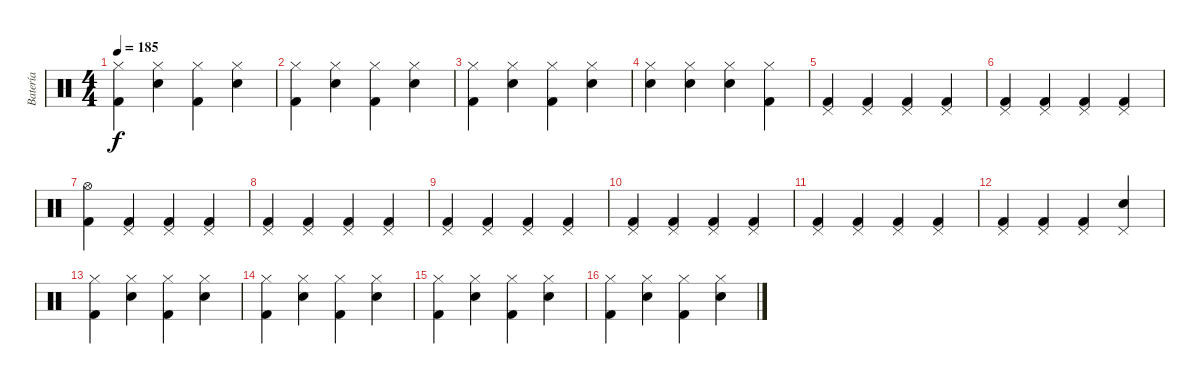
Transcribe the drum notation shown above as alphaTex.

\track ("Batería" "Batería") {instrument percussion}
\staff {score}
\articulation defaults
\ts (4 4)
\tempo 185
\clef neutral
\ks c
("Hi-Hat (closed)" "Kick (hit) 2").4{dy f} ("Hi-Hat (closed)" "Snare (hit) 2").4 ("Hi-Hat (closed)" "Kick (hit) 2").4 ("Hi-Hat (closed)" "Snare (hit) 2").4 |
("Hi-Hat (closed)" "Kick (hit) 2").4 ("Hi-Hat (closed)" "Snare (hit) 2").4 ("Hi-Hat (closed)" "Kick (hit) 2").4 ("Hi-Hat (closed)" "Snare (hit) 2").4 |
("Hi-Hat (closed)" "Kick (hit) 2").4 ("Hi-Hat (closed)" "Snare (hit) 2").4 ("Hi-Hat (closed)" "Kick (hit) 2").4 ("Hi-Hat (closed)" "Snare (hit) 2").4 |
("Hi-Hat (closed)" "Snare (hit) 2").4 ("Hi-Hat (closed)" "Snare (hit) 2").4 ("Hi-Hat (closed)" "Snare (hit) 2").4 ("Hi-Hat (closed)" "Kick (hit) 2").4 |
("Pedal Hi-Hat (hit)" "Kick (hit) 2").4 ("Pedal Hi-Hat (hit)" "Kick (hit) 2").4 ("Pedal Hi-Hat (hit)" "Kick (hit) 2").4 ("Pedal Hi-Hat (hit)" "Kick (hit) 2").4 |
("Pedal Hi-Hat (hit)" "Kick (hit) 2").4 ("Pedal Hi-Hat (hit)" "Kick (hit) 2").4 ("Pedal Hi-Hat (hit)" "Kick (hit) 2").4 ("Pedal Hi-Hat (hit)" "Kick (hit) 2").4 |
("Hi-Hat (open)" "Kick (hit) 2").4 ("Pedal Hi-Hat (hit)" "Kick (hit) 2").4 ("Pedal Hi-Hat (hit)" "Kick (hit) 2").4 ("Pedal Hi-Hat (hit)" "Kick (hit) 2").4 |
("Pedal Hi-Hat (hit)" "Kick (hit) 2").4 ("Pedal Hi-Hat (hit)" "Kick (hit) 2").4 ("Pedal Hi-Hat (hit)" "Kick (hit) 2").4 ("Pedal Hi-Hat (hit)" "Kick (hit) 2").4 |
("Pedal Hi-Hat (hit)" "Kick (hit) 2").4 ("Pedal Hi-Hat (hit)" "Kick (hit) 2").4 ("Pedal Hi-Hat (hit)" "Kick (hit) 2").4 ("Pedal Hi-Hat (hit)" "Kick (hit) 2").4 |
("Pedal Hi-Hat (hit)" "Kick (hit) 2").4 ("Pedal Hi-Hat (hit)" "Kick (hit) 2").4 ("Pedal Hi-Hat (hit)" "Kick (hit) 2").4 ("Pedal Hi-Hat (hit)" "Kick (hit) 2").4 |
("Pedal Hi-Hat (hit)" "Kick (hit) 2").4 ("Pedal Hi-Hat (hit)" "Kick (hit) 2").4 ("Pedal Hi-Hat (hit)" "Kick (hit) 2").4 ("Pedal Hi-Hat (hit)" "Kick (hit) 2").4 |
("Pedal Hi-Hat (hit)" "Kick (hit) 2").4 ("Pedal Hi-Hat (hit)" "Kick (hit) 2").4 ("Pedal Hi-Hat (hit)" "Kick (hit) 2").4 ("Pedal Hi-Hat (hit)" "Snare (hit) 2").4 |
("Hi-Hat (closed)" "Kick (hit) 2").4 ("Hi-Hat (closed)" "Snare (hit) 2").4 ("Hi-Hat (closed)" "Kick (hit) 2").4 ("Hi-Hat (closed)" "Snare (hit) 2").4 |
("Hi-Hat (closed)" "Kick (hit) 2").4 ("Hi-Hat (closed)" "Snare (hit) 2").4 ("Hi-Hat (closed)" "Kick (hit) 2").4 ("Hi-Hat (closed)" "Snare (hit) 2").4 |
("Hi-Hat (closed)" "Kick (hit) 2").4 ("Hi-Hat (closed)" "Snare (hit) 2").4 ("Hi-Hat (closed)" "Kick (hit) 2").4 ("Hi-Hat (closed)" "Snare (hit) 2").4 |
("Hi-Hat (closed)" "Kick (hit) 2").4 ("Hi-Hat (closed)" "Snare (hit) 2").4 ("Hi-Hat (closed)" "Kick (hit) 2").4 ("Hi-Hat (closed)" "Snare (hit) 2").4
